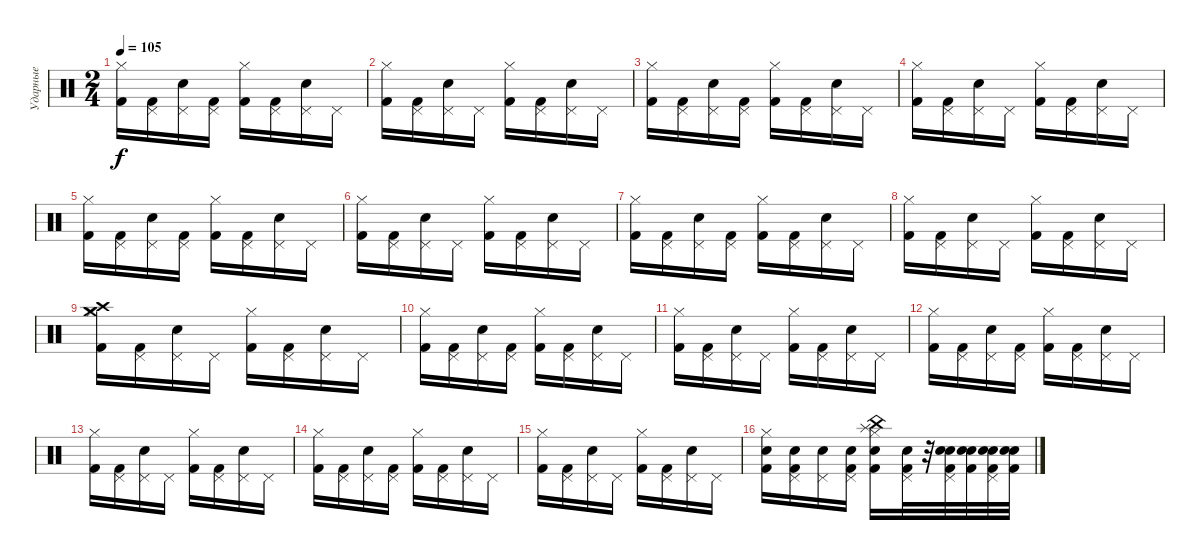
\track ("Ударные" "Ударные") {instrument percussion}
\staff {score}
\articulation defaults
\ts (2 4)
\tempo 105
\clef neutral
\ks c
("Hi-Hat (closed)" "Kick (hit) 2").16{dy f} ("Pedal Hi-Hat (hit)" "Kick (hit) 2").16 ("Pedal Hi-Hat (hit)" "Snare (hit) 2").16 ("Pedal Hi-Hat (hit)" "Kick (hit) 2").16 ("Hi-Hat (closed)" "Kick (hit) 2").16 ("Pedal Hi-Hat (hit)" "Kick (hit) 2").16 ("Pedal Hi-Hat (hit)" "Snare (hit) 2").16 "Pedal Hi-Hat (hit)".16 |
("Hi-Hat (closed)" "Kick (hit) 2").16 ("Pedal Hi-Hat (hit)" "Kick (hit) 2").16 ("Pedal Hi-Hat (hit)" "Snare (hit) 2").16 "Pedal Hi-Hat (hit)".16 ("Hi-Hat (closed)" "Kick (hit) 2").16 ("Pedal Hi-Hat (hit)" "Kick (hit) 2").16 ("Pedal Hi-Hat (hit)" "Snare (hit) 2").16 "Pedal Hi-Hat (hit)".16 |
("Hi-Hat (closed)" "Kick (hit) 2").16 ("Pedal Hi-Hat (hit)" "Kick (hit) 2").16 ("Pedal Hi-Hat (hit)" "Snare (hit) 2").16 ("Pedal Hi-Hat (hit)" "Kick (hit) 2").16 ("Hi-Hat (closed)" "Kick (hit) 2").16 ("Pedal Hi-Hat (hit)" "Kick (hit) 2").16 ("Pedal Hi-Hat (hit)" "Snare (hit) 2").16 "Pedal Hi-Hat (hit)".16 |
("Hi-Hat (closed)" "Kick (hit) 2").16 ("Pedal Hi-Hat (hit)" "Kick (hit) 2").16 ("Pedal Hi-Hat (hit)" "Snare (hit) 2").16 "Pedal Hi-Hat (hit)".16 ("Hi-Hat (closed)" "Kick (hit) 2").16 ("Pedal Hi-Hat (hit)" "Kick (hit) 2").16 ("Pedal Hi-Hat (hit)" "Snare (hit) 2").16 "Pedal Hi-Hat (hit)".16 |
("Hi-Hat (closed)" "Kick (hit) 2").16 ("Pedal Hi-Hat (hit)" "Kick (hit) 2").16 ("Pedal Hi-Hat (hit)" "Snare (hit) 2").16 ("Pedal Hi-Hat (hit)" "Kick (hit) 2").16 ("Hi-Hat (closed)" "Kick (hit) 2").16 ("Pedal Hi-Hat (hit)" "Kick (hit) 2").16 ("Pedal Hi-Hat (hit)" "Snare (hit) 2").16 "Pedal Hi-Hat (hit)".16 |
("Hi-Hat (closed)" "Kick (hit) 2").16 ("Pedal Hi-Hat (hit)" "Kick (hit) 2").16 ("Pedal Hi-Hat (hit)" "Snare (hit) 2").16 "Pedal Hi-Hat (hit)".16 ("Hi-Hat (closed)" "Kick (hit) 2").16 ("Pedal Hi-Hat (hit)" "Kick (hit) 2").16 ("Pedal Hi-Hat (hit)" "Snare (hit) 2").16 "Pedal Hi-Hat (hit)".16 |
("Hi-Hat (closed)" "Kick (hit) 2").16 ("Pedal Hi-Hat (hit)" "Kick (hit) 2").16 ("Pedal Hi-Hat (hit)" "Snare (hit) 2").16 ("Pedal Hi-Hat (hit)" "Kick (hit) 2").16 ("Hi-Hat (closed)" "Kick (hit) 2").16 ("Pedal Hi-Hat (hit)" "Kick (hit) 2").16 ("Pedal Hi-Hat (hit)" "Snare (hit) 2").16 "Pedal Hi-Hat (hit)".16 |
("Hi-Hat (closed)" "Kick (hit) 2").16 ("Pedal Hi-Hat (hit)" "Kick (hit) 2").16 ("Pedal Hi-Hat (hit)" "Snare (hit) 2").16 "Pedal Hi-Hat (hit)".16 ("Hi-Hat (closed)" "Kick (hit) 2").16 ("Pedal Hi-Hat (hit)" "Kick (hit) 2").16 ("Pedal Hi-Hat (hit)" "Snare (hit) 2").16 "Pedal Hi-Hat (hit)".16 |
("Hi-Hat (closed)" "Crash medium (hit)" "Crash high (hit)" "Kick (hit) 2").16 ("Pedal Hi-Hat (hit)" "Kick (hit) 2").16 ("Pedal Hi-Hat (hit)" "Snare (hit) 2").16 "Pedal Hi-Hat (hit)".16 ("Hi-Hat (closed)" "Kick (hit) 2").16 ("Pedal Hi-Hat (hit)" "Kick (hit) 2").16 ("Pedal Hi-Hat (hit)" "Snare (hit) 2").16 "Pedal Hi-Hat (hit)".16 |
("Hi-Hat (closed)" "Kick (hit) 2").16 ("Pedal Hi-Hat (hit)" "Kick (hit) 2").16 ("Pedal Hi-Hat (hit)" "Snare (hit) 2").16 ("Pedal Hi-Hat (hit)" "Kick (hit) 2").16 ("Hi-Hat (closed)" "Kick (hit) 2").16 ("Pedal Hi-Hat (hit)" "Kick (hit) 2").16 ("Pedal Hi-Hat (hit)" "Snare (hit) 2").16 "Pedal Hi-Hat (hit)".16 |
("Hi-Hat (closed)" "Kick (hit) 2").16 ("Pedal Hi-Hat (hit)" "Kick (hit) 2").16 ("Pedal Hi-Hat (hit)" "Snare (hit) 2").16 "Pedal Hi-Hat (hit)".16 ("Hi-Hat (closed)" "Kick (hit) 2").16 ("Pedal Hi-Hat (hit)" "Kick (hit) 2").16 ("Pedal Hi-Hat (hit)" "Snare (hit) 2").16 "Pedal Hi-Hat (hit)".16 |
("Hi-Hat (closed)" "Kick (hit) 2").16 ("Pedal Hi-Hat (hit)" "Kick (hit) 2").16 ("Pedal Hi-Hat (hit)" "Snare (hit) 2").16 ("Pedal Hi-Hat (hit)" "Kick (hit) 2").16 ("Hi-Hat (closed)" "Kick (hit) 2").16 ("Pedal Hi-Hat (hit)" "Kick (hit) 2").16 ("Pedal Hi-Hat (hit)" "Snare (hit) 2").16 "Pedal Hi-Hat (hit)".16 |
("Hi-Hat (closed)" "Kick (hit) 2").16 ("Pedal Hi-Hat (hit)" "Kick (hit) 2").16 ("Pedal Hi-Hat (hit)" "Snare (hit) 2").16 "Pedal Hi-Hat (hit)".16 ("Hi-Hat (closed)" "Kick (hit) 2").16 ("Pedal Hi-Hat (hit)" "Kick (hit) 2").16 ("Pedal Hi-Hat (hit)" "Snare (hit) 2").16 "Pedal Hi-Hat (hit)".16 |
("Hi-Hat (closed)" "Kick (hit) 2").16 ("Pedal Hi-Hat (hit)" "Kick (hit) 2").16 ("Pedal Hi-Hat (hit)" "Snare (hit) 2").16 ("Pedal Hi-Hat (hit)" "Kick (hit) 2").16 ("Hi-Hat (closed)" "Kick (hit) 2").16 ("Pedal Hi-Hat (hit)" "Kick (hit) 2").16 ("Pedal Hi-Hat (hit)" "Snare (hit) 2").16 "Pedal Hi-Hat (hit)".16 |
("Hi-Hat (closed)" "Kick (hit) 2").16 ("Pedal Hi-Hat (hit)" "Kick (hit) 2").16 ("Pedal Hi-Hat (hit)" "Snare (hit) 2").16 "Pedal Hi-Hat (hit)".16 ("Hi-Hat (closed)" "Kick (hit) 2").16 ("Pedal Hi-Hat (hit)" "Kick (hit) 2").16 ("Pedal Hi-Hat (hit)" "Snare (hit) 2").16 "Pedal Hi-Hat (hit)".16 |
("Hi-Hat (closed)" "Hand Clap (hit)" "Kick (hit) 2").16 ("Pedal Hi-Hat (hit)" "Hand Clap (hit)" "Kick (hit) 2").16 ("Pedal Hi-Hat (hit)" "Hand Clap (hit)").16 ("Pedal Hi-Hat (hit)" "Hand Clap (hit)" "Kick (hit) 2").16 ("Hi-Hat (closed)" "Hand Clap (hit)" "Splash (hit)" "China (hit)" "Kick (hit) 2").16 ("Pedal Hi-Hat (hit)" "Hand Clap (hit)" "Kick (hit) 2").32 r.32 ("Pedal Hi-Hat (hit)" "Electric Snare (hit)" "Hand Clap (hit)" "Kick (hit) 2").32 ("Electric Snare (hit)" "Hand Clap (hit)" "Kick (hit) 2").32 ("Pedal Hi-Hat (hit)" "Electric Snare (hit)" "Hand Clap (hit)" "Kick (hit) 2").32 ("Electric Snare (hit)" "Hand Clap (hit)" "Kick (hit) 2").32
